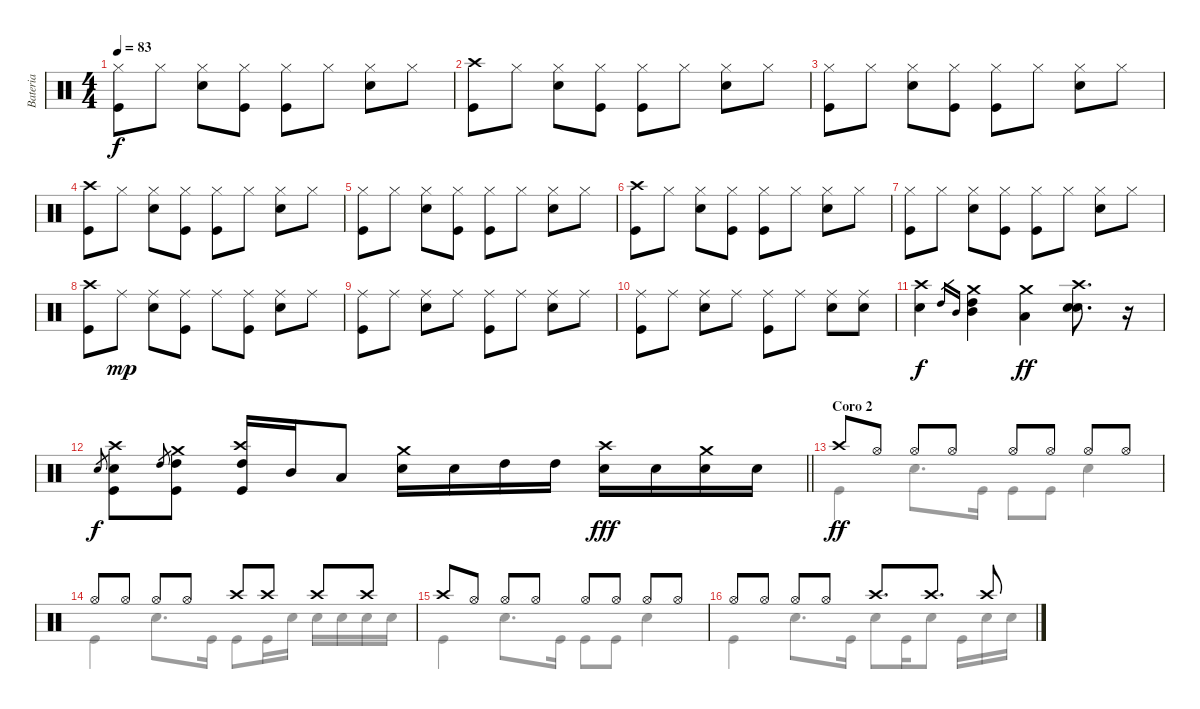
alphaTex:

\track ("Bateria" "Bateria") {instrument percussion}
\staff {score}
\articulation defaults
\voice
\ts (4 4)
\tempo 83
\clef neutral
\ks c
("Hi-Hat (closed)" "Kick (hit)").8{dy f} "Hi-Hat (closed)".8 ("Hi-Hat (closed)" "Snare (hit) 2").8 ("Hi-Hat (closed)" "Kick (hit)").8 ("Hi-Hat (closed)" "Kick (hit)").8 "Hi-Hat (closed)".8 ("Hi-Hat (closed)" "Snare (hit) 2").8 "Hi-Hat (closed)".8 |
("Crash high (hit)" "Kick (hit)").8 "Hi-Hat (closed)".8 ("Hi-Hat (closed)" "Snare (hit) 2").8 ("Hi-Hat (closed)" "Kick (hit)").8 ("Hi-Hat (closed)" "Kick (hit)").8 "Hi-Hat (closed)".8 ("Hi-Hat (closed)" "Snare (hit) 2").8 "Hi-Hat (closed)".8 |
("Hi-Hat (closed)" "Kick (hit)").8 "Hi-Hat (closed)".8 ("Hi-Hat (closed)" "Snare (hit) 2").8 ("Hi-Hat (closed)" "Kick (hit)").8 ("Hi-Hat (closed)" "Kick (hit)").8 "Hi-Hat (closed)".8 ("Hi-Hat (closed)" "Snare (hit) 2").8 "Hi-Hat (closed)".8 |
("Crash high (hit)" "Kick (hit)").8 "Hi-Hat (closed)".8 ("Hi-Hat (closed)" "Snare (hit) 2").8 ("Hi-Hat (closed)" "Kick (hit)").8 ("Hi-Hat (closed)" "Kick (hit)").8 "Hi-Hat (closed)".8 ("Hi-Hat (closed)" "Snare (hit) 2").8 "Hi-Hat (closed)".8 |
("Hi-Hat (closed)" "Kick (hit)").8 "Hi-Hat (closed)".8 ("Hi-Hat (closed)" "Snare (hit) 2").8 ("Hi-Hat (closed)" "Kick (hit)").8 ("Hi-Hat (closed)" "Kick (hit)").8 "Hi-Hat (closed)".8 ("Hi-Hat (closed)" "Snare (hit) 2").8 "Hi-Hat (closed)".8 |
("Crash high (hit)" "Kick (hit)").8 "Hi-Hat (closed)".8 ("Hi-Hat (closed)" "Snare (hit) 2").8 ("Hi-Hat (closed)" "Kick (hit)").8 ("Hi-Hat (closed)" "Kick (hit)").8 "Hi-Hat (closed)".8 ("Hi-Hat (closed)" "Snare (hit) 2").8 "Hi-Hat (closed)".8 |
("Hi-Hat (closed)" "Kick (hit)").8 "Hi-Hat (closed)".8 ("Hi-Hat (closed)" "Snare (hit) 2").8 ("Hi-Hat (closed)" "Kick (hit)").8 ("Hi-Hat (closed)" "Kick (hit)").8 "Hi-Hat (closed)".8 ("Hi-Hat (closed)" "Snare (hit) 2").8 "Hi-Hat (closed)".8 |
("Crash high (hit)" "Kick (hit)").8 "Ride (middle)".8{dy mp} ("Ride (middle)" "Snare (hit) 2").8 ("Ride (middle)" "Kick (hit)").8 "Ride (middle)".8 ("Ride (middle)" "Kick (hit)").8 ("Ride (middle)" "Snare (hit) 2").8 "Ride (middle)".8 |
("Ride (middle)" "Kick (hit)").8 "Ride (middle)".8 ("Ride (middle)" "Snare (hit) 2").8 "Ride (middle)".8 ("Ride (middle)" "Kick (hit)").8 "Ride (middle)".8 ("Ride (middle)" "Snare (hit) 2").8 "Ride (middle)".8 |
("Ride (middle)" "Kick (hit)").8 "Ride (middle)".8 ("Ride (middle)" "Snare (hit) 2").8 "Ride (middle)".8 ("Ride (middle)" "Kick (hit)").8 "Ride (middle)".8 ("Ride (middle)" "Snare (hit) 2").8 ("Ride (middle)" "Snare (hit) 2").8 |
("Crash high (hit)" "Snare (hit) 2").4{dy f} "High Tom (hit)".16{gr} "Mid Tom (hit)".16{gr} ("Crash medium (hit)" "High Tom (hit)" "Mid Tom (hit)").4 ("Crash medium (hit)" "Low Tom (hit)").4{dy ff} ("Crash high (hit)" "Snare (hit) 2" "Snare (hit) 2").8{d} r.16 |
\barLineRight lightlight "Snare (hit) 2".8{gr dy f}
("Crash high (hit)" "Snare (hit) 2" "Kick (hit)").8 "High Tom (hit)".8{gr} ("Crash medium (hit)" "High Tom (hit)" "Kick (hit)").8 ("Crash high (hit)" "High Tom (hit)" "Kick (hit)").16 "Mid Tom (hit)".16 "Low Tom (hit)".8 ("Crash medium (hit)" "Snare (hit) 2").16 "Snare (hit) 2".16 "High Tom (hit)".16 "High Tom (hit)".16 ("Crash high (hit)" "Snare (hit) 2").16{dy fff} "Snare (hit) 2".16 ("Crash medium (hit)" "Snare (hit) 2").16 "Snare (hit) 2".16 |
\section ("" "Coro 2")
"Crash high (hit)".8{dy ff} "Hi-Hat (open)".8 "Hi-Hat (open)".8 "Hi-Hat (open)".8 "Hi-Hat (open)".8 "Hi-Hat (open)".8 "Hi-Hat (open)".8 "Hi-Hat (open)".8 |
"Hi-Hat (open)".8 "Hi-Hat (open)".8 "Hi-Hat (open)".8 "Hi-Hat (open)".8 "Crash high (hit)".8 "Crash high (hit)".8 "Crash high (hit)".8 "Crash high (hit)".8 |
"Crash high (hit)".8 "Hi-Hat (open)".8 "Hi-Hat (open)".8 "Hi-Hat (open)".8 "Hi-Hat (open)".8 "Hi-Hat (open)".8 "Hi-Hat (open)".8 "Hi-Hat (open)".8 |
"Hi-Hat (open)".8 "Hi-Hat (open)".8 "Hi-Hat (open)".8 "Hi-Hat (open)".8 "Crash high (hit)".8{d} "Crash high (hit)".8{d} "Crash high (hit)".8
\voice
\clef neutral
\ottava regular
\simile none
\ks c
|
|
|
|
|
|
|
|
|
|
|
\barLineRight lightlight
|
"Kick (hit)".4 "Snare (hit) 2".8{d} "Kick (hit)".16 "Kick (hit)".8 "Kick (hit)".8 "Snare (hit) 2".4 |
"Kick (hit)".4 "Snare (hit) 2".8{d} "Kick (hit)".16 "Kick (hit)".8 "Kick (hit)".16 "Snare (hit) 2".16 "Snare (hit) 2".16 "Snare (hit) 2".16 "Snare (hit) 2".16 "Snare (hit) 2".16 |
"Kick (hit)".4 "Snare (hit) 2".8{d} "Kick (hit)".16 "Kick (hit)".8 "Kick (hit)".8 "Snare (hit) 2".4 |
"Kick (hit)".4 "Snare (hit) 2".8{d} "Kick (hit)".16 "Snare (hit) 2".8 "Kick (hit)".16 "Snare (hit) 2".8 "Kick (hit)".16 "Snare (hit) 2".16 "Snare (hit) 2".16
